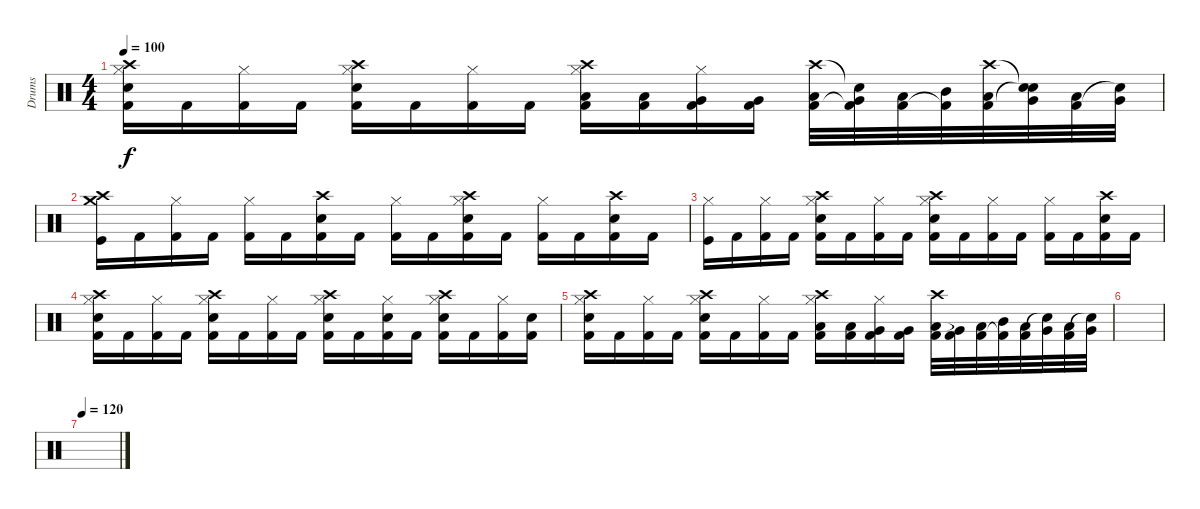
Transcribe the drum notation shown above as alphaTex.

\track ("Drums" "Drums") {instrument percussion}
\staff {score}
\articulation defaults
\ts (4 4)
\tempo 100
\clef neutral
\ks c
("Hi-Hat (closed)" "Crash high (hit)" "Electric Snare (hit)" "Kick (hit) 2").16{dy f} "Kick (hit) 2".16 ("Hi-Hat (closed)" "Kick (hit) 2").16 "Kick (hit) 2".16 ("Hi-Hat (closed)" "Crash high (hit)" "Electric Snare (hit)" "Kick (hit) 2").16 "Kick (hit) 2".16 ("Hi-Hat (closed)" "Kick (hit) 2").16 "Kick (hit) 2".16 ("Hi-Hat (closed)" "Crash high (hit)" "Low Floor Tom (hit)" "Kick (hit) 2").16 ("Low Floor Tom (hit)" "Kick (hit) 2").16 ("Hi-Hat (closed)" "Very Low Tom (hit)" "Kick (hit) 2").16 ("Very Low Tom (hit)" "Kick (hit) 2").16 ("Crash high (hit)" "Low Floor Tom (hit)" "Kick (hit) 2").32 ("Snare (hit)"{t} "Very Low Tom (hit)" "Kick (hit) 2"{t}).32 ("Low Tom (hit)" "Kick (hit) 2").32 ("Mid Tom (hit)" "Kick (hit) 2"{t}).32 ("Crash high (hit)" "Low Tom (hit)" "Kick (hit) 2").32 ("Snare (hit)"{t} "Very Low Tom (hit)" "Snare (hit)"{t}).32 ("Low Floor Tom (hit)" "Kick (hit) 2").32 ("Very Low Tom (hit)" "Snare (hit)"{t}).32 |
("Crash medium (hit)" "Crash high (hit)" "Kick (hit)").16 "Kick (hit) 2".16 ("Hi-Hat (closed)" "Kick (hit) 2").16 "Kick (hit) 2".16 ("Hi-Hat (closed)" "Kick (hit) 2").16 "Kick (hit) 2".16 ("Crash high (hit)" "Electric Snare (hit)" "Kick (hit) 2").16 "Kick (hit) 2".16 ("Hi-Hat (closed)" "Kick (hit) 2").16 "Kick (hit) 2".16 ("Hi-Hat (closed)" "Crash high (hit)" "Electric Snare (hit)" "Kick (hit) 2").16 "Kick (hit) 2".16 ("Hi-Hat (closed)" "Kick (hit) 2").16 "Kick (hit) 2".16 ("Crash high (hit)" "Electric Snare (hit)" "Kick (hit) 2").16 "Kick (hit) 2".16 |
("Hi-Hat (closed)" "Kick (hit)").16 "Kick (hit) 2".16 ("Hi-Hat (closed)" "Kick (hit) 2").16 "Kick (hit) 2".16 ("Hi-Hat (closed)" "Crash high (hit)" "Electric Snare (hit)" "Kick (hit) 2").16 "Kick (hit) 2".16 ("Hi-Hat (closed)" "Kick (hit) 2").16 "Kick (hit) 2".16 ("Hi-Hat (closed)" "Crash high (hit)" "Electric Snare (hit)" "Kick (hit) 2").16 "Kick (hit) 2".16 ("Hi-Hat (closed)" "Kick (hit) 2").16 "Kick (hit) 2".16 ("Hi-Hat (closed)" "Kick (hit) 2").16 "Kick (hit) 2".16 ("Crash high (hit)" "Electric Snare (hit)" "Kick (hit) 2").16 "Kick (hit) 2".16 |
("Hi-Hat (closed)" "Crash high (hit)" "Electric Snare (hit)" "Kick (hit) 2").16 "Kick (hit) 2".16 ("Hi-Hat (closed)" "Kick (hit) 2").16 "Kick (hit) 2".16 ("Hi-Hat (closed)" "Crash high (hit)" "Electric Snare (hit)" "Kick (hit) 2").16 "Kick (hit) 2".16 ("Hi-Hat (closed)" "Kick (hit) 2").16 "Kick (hit) 2".16 ("Hi-Hat (closed)" "Crash high (hit)" "Electric Snare (hit)" "Kick (hit) 2").16 "Kick (hit) 2".16 ("Hi-Hat (closed)" "Electric Snare (hit)" "Kick (hit) 2").16 "Kick (hit) 2".16 ("Hi-Hat (closed)" "Crash high (hit)" "Electric Snare (hit)" "Kick (hit) 2").16 "Kick (hit) 2".16 ("Hi-Hat (closed)" "Kick (hit) 2").16 ("Electric Snare (hit)" "Kick (hit) 2").16 |
("Hi-Hat (closed)" "Crash high (hit)" "Electric Snare (hit)" "Kick (hit) 2").16 "Kick (hit) 2".16 ("Hi-Hat (closed)" "Kick (hit) 2").16 "Kick (hit) 2".16 ("Hi-Hat (closed)" "Crash high (hit)" "Electric Snare (hit)" "Kick (hit) 2").16 "Kick (hit) 2".16 ("Hi-Hat (closed)" "Kick (hit) 2").16 "Kick (hit) 2".16 ("Hi-Hat (closed)" "Crash high (hit)" "Low Floor Tom (hit)" "Kick (hit) 2").16 ("Low Floor Tom (hit)" "Kick (hit) 2").16 ("Hi-Hat (closed)" "Very Low Tom (hit)" "Kick (hit) 2").16 ("Very Low Tom (hit)" "Kick (hit) 2").16 ("Crash high (hit)" "Low Floor Tom (hit)" "Kick (hit) 2").32 ("Very Low Tom (hit)" "Kick (hit) 2"{t}).32 ("Low Tom (hit)" "Kick (hit) 2").32 ("Mid Tom (hit)" "Kick (hit) 2"{t}).32 ("Low Tom (hit)" "Kick (hit) 2").32 ("Very Low Tom (hit)" "Snare (hit)"{t}).32 ("Low Floor Tom (hit)" "Kick (hit) 2").32 ("Very Low Tom (hit)" "Snare (hit)"{t}).32 |
|
\tempo 120
